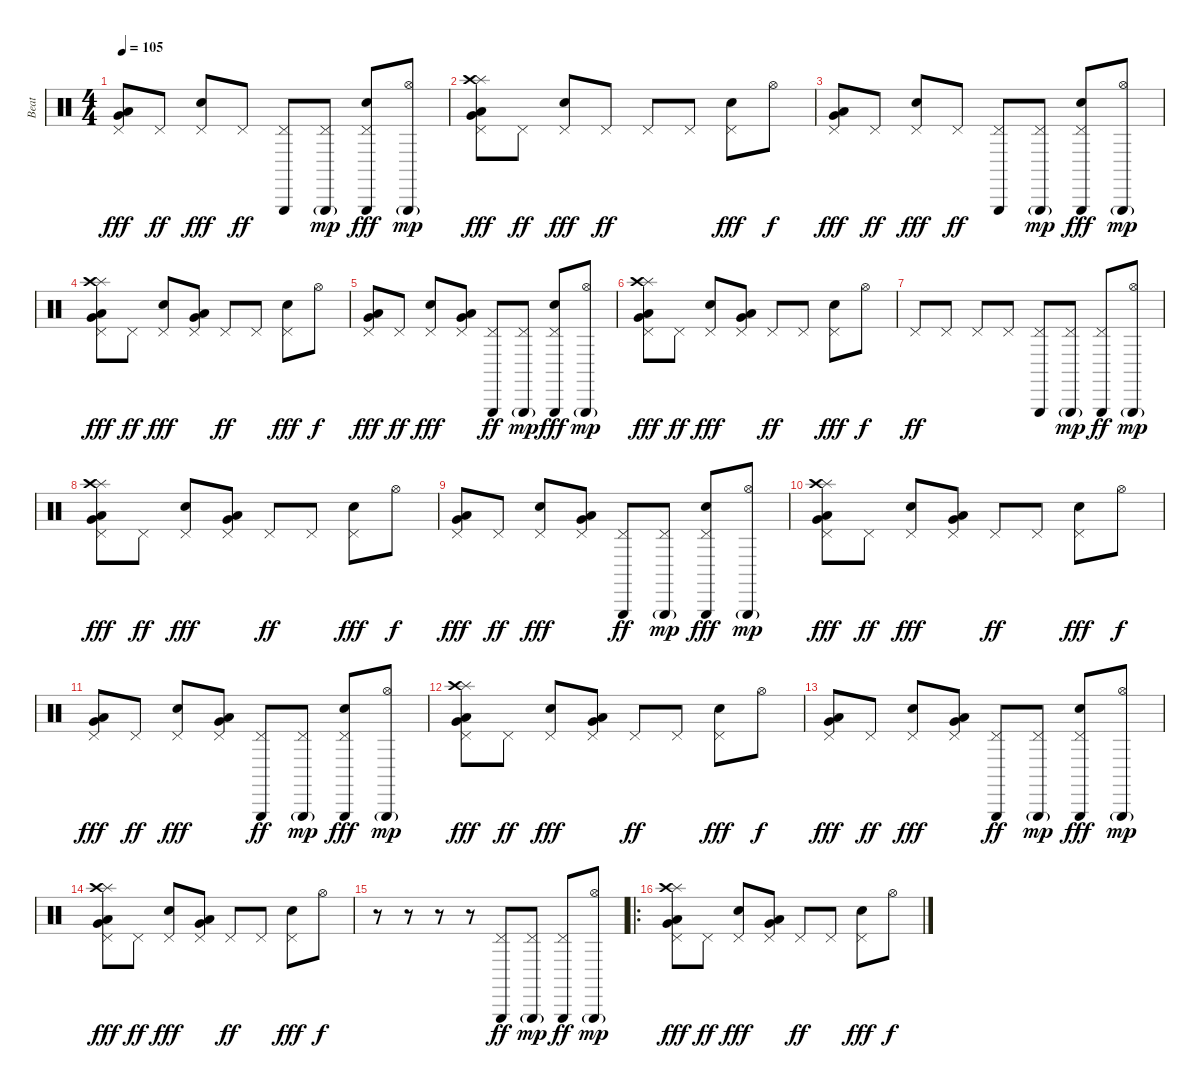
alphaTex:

\track ("Beat" "Beat") {instrument percussion}
\staff {score}
\articulation defaults
\ts (4 4)
\tempo 105
\clef neutral
\ks c
("Pedal Hi-Hat (hit)" "Low Floor Tom (hit)" "Very Low Tom (hit)").8{dy fff} "Pedal Hi-Hat (hit)".8{dy ff} ("Pedal Hi-Hat (hit)" "Hand Clap (hit)").8{dy fff} "Pedal Hi-Hat (hit)".8{dy ff} ("Pedal Hi-Hat (hit)" "Triangle (hit)").8 ("Pedal Hi-Hat (hit)" "Triangle (hit)"{g}).8{dy mp} ("Pedal Hi-Hat (hit)" "Triangle (hit)" "Hand Clap (hit)").8{dy fff} ("Hi-Hat (open)" "Triangle (hit)"{g}).8{dy mp} |
("Pedal Hi-Hat (hit)" "Splash (hit)" "Crash high (hit)" "Low Floor Tom (hit)" "Very Low Tom (hit)").8{dy fff} "Pedal Hi-Hat (hit)".8{dy ff} ("Pedal Hi-Hat (hit)" "Hand Clap (hit)").8{dy fff} "Pedal Hi-Hat (hit)".8{dy ff} "Pedal Hi-Hat (hit)".8 "Pedal Hi-Hat (hit)".8 ("Pedal Hi-Hat (hit)" "Hand Clap (hit)").8{dy fff} "Hi-Hat (open)".8{dy f} |
("Pedal Hi-Hat (hit)" "Low Floor Tom (hit)" "Very Low Tom (hit)").8{dy fff} "Pedal Hi-Hat (hit)".8{dy ff} ("Pedal Hi-Hat (hit)" "Hand Clap (hit)").8{dy fff} "Pedal Hi-Hat (hit)".8{dy ff} ("Pedal Hi-Hat (hit)" "Triangle (hit)").8 ("Pedal Hi-Hat (hit)" "Triangle (hit)"{g}).8{dy mp} ("Pedal Hi-Hat (hit)" "Triangle (hit)" "Hand Clap (hit)").8{dy fff} ("Hi-Hat (open)" "Triangle (hit)"{g}).8{dy mp} |
("Pedal Hi-Hat (hit)" "Splash (hit)" "Crash high (hit)" "Low Floor Tom (hit)" "Very Low Tom (hit)").8{dy fff} "Pedal Hi-Hat (hit)".8{dy ff} ("Pedal Hi-Hat (hit)" "Hand Clap (hit)").8{dy fff} ("Pedal Hi-Hat (hit)" "Low Floor Tom (hit)" "Very Low Tom (hit)").8 "Pedal Hi-Hat (hit)".8{dy ff} "Pedal Hi-Hat (hit)".8 ("Pedal Hi-Hat (hit)" "Hand Clap (hit)").8{dy fff} "Hi-Hat (open)".8{dy f} |
("Pedal Hi-Hat (hit)" "Low Floor Tom (hit)" "Very Low Tom (hit)").8{dy fff} "Pedal Hi-Hat (hit)".8{dy ff} ("Pedal Hi-Hat (hit)" "Hand Clap (hit)").8{dy fff} ("Pedal Hi-Hat (hit)" "Low Floor Tom (hit)" "Very Low Tom (hit)").8 ("Pedal Hi-Hat (hit)" "Triangle (hit)").8{dy ff} ("Pedal Hi-Hat (hit)" "Triangle (hit)"{g}).8{dy mp} ("Pedal Hi-Hat (hit)" "Triangle (hit)" "Hand Clap (hit)").8{dy fff} ("Hi-Hat (open)" "Triangle (hit)"{g}).8{dy mp} |
("Pedal Hi-Hat (hit)" "Splash (hit)" "Crash high (hit)" "Low Floor Tom (hit)" "Very Low Tom (hit)").8{dy fff} "Pedal Hi-Hat (hit)".8{dy ff} ("Pedal Hi-Hat (hit)" "Hand Clap (hit)").8{dy fff} ("Pedal Hi-Hat (hit)" "Low Floor Tom (hit)" "Very Low Tom (hit)").8 "Pedal Hi-Hat (hit)".8{dy ff} "Pedal Hi-Hat (hit)".8 ("Pedal Hi-Hat (hit)" "Hand Clap (hit)").8{dy fff} "Hi-Hat (open)".8{dy f} |
"Pedal Hi-Hat (hit)".8{dy ff} "Pedal Hi-Hat (hit)".8 "Pedal Hi-Hat (hit)".8 "Pedal Hi-Hat (hit)".8 ("Pedal Hi-Hat (hit)" "Triangle (hit)").8 ("Pedal Hi-Hat (hit)" "Triangle (hit)"{g}).8{dy mp} ("Pedal Hi-Hat (hit)" "Triangle (hit)").8{dy ff} ("Hi-Hat (open)" "Triangle (hit)"{g}).8{dy mp} |
("Pedal Hi-Hat (hit)" "Splash (hit)" "Crash high (hit)" "Low Floor Tom (hit)" "Very Low Tom (hit)").8{dy fff} "Pedal Hi-Hat (hit)".8{dy ff} ("Pedal Hi-Hat (hit)" "Hand Clap (hit)").8{dy fff} ("Pedal Hi-Hat (hit)" "Low Floor Tom (hit)" "Very Low Tom (hit)").8 "Pedal Hi-Hat (hit)".8{dy ff} "Pedal Hi-Hat (hit)".8 ("Pedal Hi-Hat (hit)" "Hand Clap (hit)").8{dy fff} "Hi-Hat (open)".8{dy f} |
("Pedal Hi-Hat (hit)" "Low Floor Tom (hit)" "Very Low Tom (hit)").8{dy fff} "Pedal Hi-Hat (hit)".8{dy ff} ("Pedal Hi-Hat (hit)" "Hand Clap (hit)").8{dy fff} ("Pedal Hi-Hat (hit)" "Low Floor Tom (hit)" "Very Low Tom (hit)").8 ("Pedal Hi-Hat (hit)" "Triangle (hit)").8{dy ff} ("Pedal Hi-Hat (hit)" "Triangle (hit)"{g}).8{dy mp} ("Pedal Hi-Hat (hit)" "Triangle (hit)" "Hand Clap (hit)").8{dy fff} ("Hi-Hat (open)" "Triangle (hit)"{g}).8{dy mp} |
("Pedal Hi-Hat (hit)" "Splash (hit)" "Crash high (hit)" "Low Floor Tom (hit)" "Very Low Tom (hit)").8{dy fff} "Pedal Hi-Hat (hit)".8{dy ff} ("Pedal Hi-Hat (hit)" "Hand Clap (hit)").8{dy fff} ("Pedal Hi-Hat (hit)" "Low Floor Tom (hit)" "Very Low Tom (hit)").8 "Pedal Hi-Hat (hit)".8{dy ff} "Pedal Hi-Hat (hit)".8 ("Pedal Hi-Hat (hit)" "Hand Clap (hit)").8{dy fff} "Hi-Hat (open)".8{dy f} |
("Pedal Hi-Hat (hit)" "Low Floor Tom (hit)" "Very Low Tom (hit)").8{dy fff} "Pedal Hi-Hat (hit)".8{dy ff} ("Pedal Hi-Hat (hit)" "Hand Clap (hit)").8{dy fff} ("Pedal Hi-Hat (hit)" "Low Floor Tom (hit)" "Very Low Tom (hit)").8 ("Pedal Hi-Hat (hit)" "Triangle (hit)").8{dy ff} ("Pedal Hi-Hat (hit)" "Triangle (hit)"{g}).8{dy mp} ("Pedal Hi-Hat (hit)" "Triangle (hit)" "Hand Clap (hit)").8{dy fff} ("Hi-Hat (open)" "Triangle (hit)"{g}).8{dy mp} |
("Pedal Hi-Hat (hit)" "Splash (hit)" "Crash high (hit)" "Low Floor Tom (hit)" "Very Low Tom (hit)").8{dy fff} "Pedal Hi-Hat (hit)".8{dy ff} ("Pedal Hi-Hat (hit)" "Hand Clap (hit)").8{dy fff} ("Pedal Hi-Hat (hit)" "Low Floor Tom (hit)" "Very Low Tom (hit)").8 "Pedal Hi-Hat (hit)".8{dy ff} "Pedal Hi-Hat (hit)".8 ("Pedal Hi-Hat (hit)" "Hand Clap (hit)").8{dy fff} "Hi-Hat (open)".8{dy f} |
("Pedal Hi-Hat (hit)" "Low Floor Tom (hit)" "Very Low Tom (hit)").8{dy fff} "Pedal Hi-Hat (hit)".8{dy ff} ("Pedal Hi-Hat (hit)" "Hand Clap (hit)").8{dy fff} ("Pedal Hi-Hat (hit)" "Low Floor Tom (hit)" "Very Low Tom (hit)").8 ("Pedal Hi-Hat (hit)" "Triangle (hit)").8{dy ff} ("Pedal Hi-Hat (hit)" "Triangle (hit)"{g}).8{dy mp} ("Pedal Hi-Hat (hit)" "Triangle (hit)" "Hand Clap (hit)").8{dy fff} ("Hi-Hat (open)" "Triangle (hit)"{g}).8{dy mp} |
("Pedal Hi-Hat (hit)" "Splash (hit)" "Crash high (hit)" "Low Floor Tom (hit)" "Very Low Tom (hit)").8{dy fff} "Pedal Hi-Hat (hit)".8{dy ff} ("Pedal Hi-Hat (hit)" "Hand Clap (hit)").8{dy fff} ("Pedal Hi-Hat (hit)" "Low Floor Tom (hit)" "Very Low Tom (hit)").8 "Pedal Hi-Hat (hit)".8{dy ff} "Pedal Hi-Hat (hit)".8 ("Pedal Hi-Hat (hit)" "Hand Clap (hit)").8{dy fff} "Hi-Hat (open)".8{dy f} |
r.8 r.8 r.8 r.8 ("Pedal Hi-Hat (hit)" "Triangle (hit)").8{dy ff} ("Pedal Hi-Hat (hit)" "Triangle (hit)"{g}).8{dy mp} ("Pedal Hi-Hat (hit)" "Triangle (hit)").8{dy ff} ("Hi-Hat (open)" "Triangle (hit)"{g}).8{dy mp} |
\ro
("Pedal Hi-Hat (hit)" "Splash (hit)" "Crash high (hit)" "Low Floor Tom (hit)" "Very Low Tom (hit)").8{dy fff} "Pedal Hi-Hat (hit)".8{dy ff} ("Pedal Hi-Hat (hit)" "Hand Clap (hit)").8{dy fff} ("Pedal Hi-Hat (hit)" "Low Floor Tom (hit)" "Very Low Tom (hit)").8 "Pedal Hi-Hat (hit)".8{dy ff} "Pedal Hi-Hat (hit)".8 ("Pedal Hi-Hat (hit)" "Hand Clap (hit)").8{dy fff} "Hi-Hat (open)".8{dy f}
